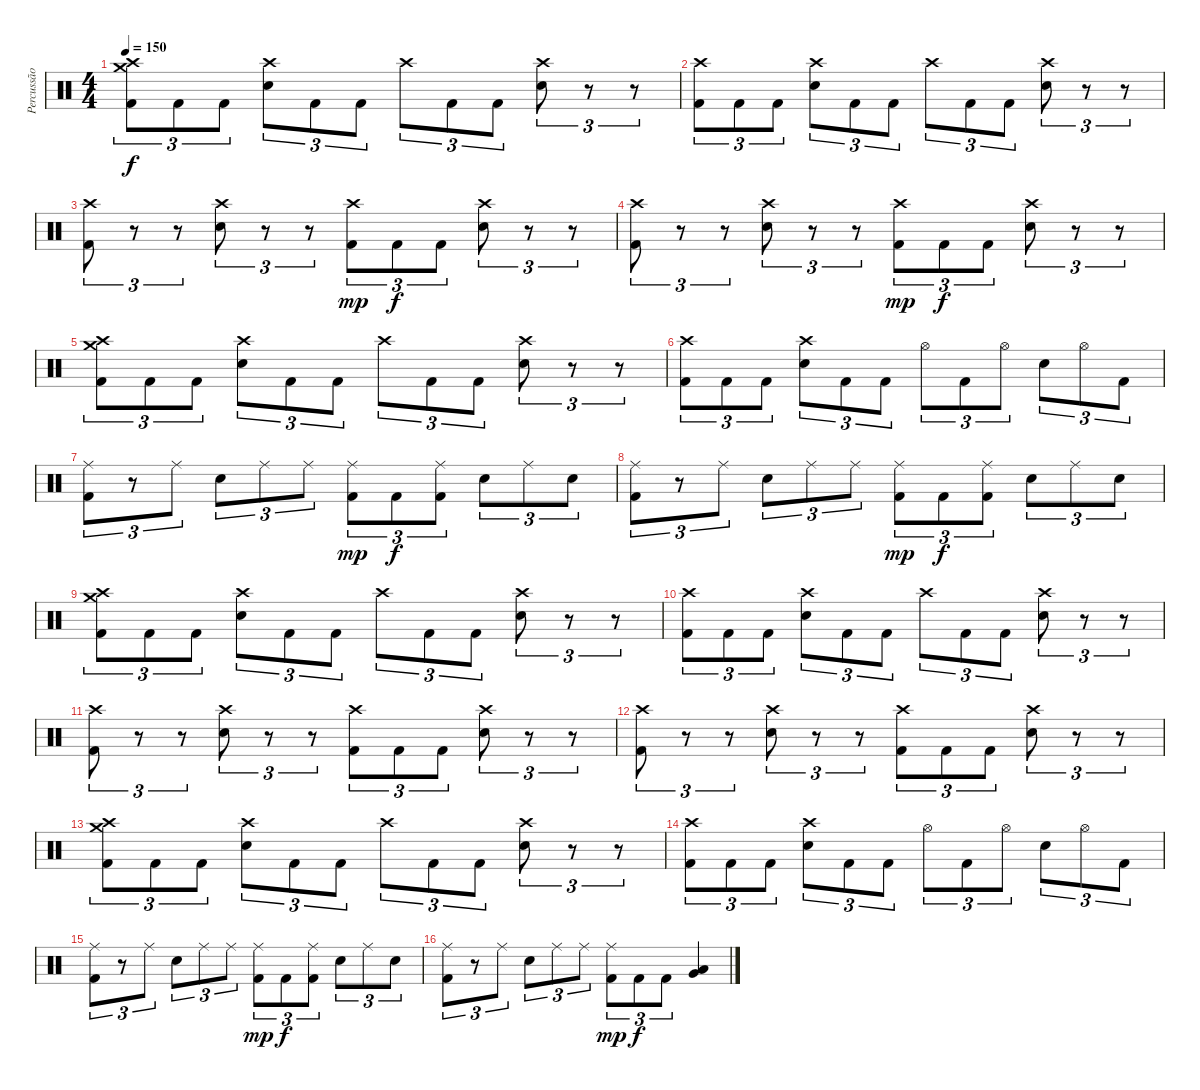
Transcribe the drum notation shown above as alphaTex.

\track ("Percussão" "Percussão") {instrument percussion}
\staff {score}
\articulation defaults
\ts (4 4)
\tempo 150
\clef neutral
\ks c
("Crash high (hit)" "Crash medium (hit)" "Kick (hit) 2").8{tu (3 2) dy f} "Kick (hit) 2".8{tu (3 2)} "Kick (hit) 2".8{tu (3 2)} ("Crash high (hit)" "Snare (hit) 2").8{tu (3 2)} "Kick (hit) 2".8{tu (3 2)} "Kick (hit) 2".8{tu (3 2)} "Crash high (hit)".8{tu (3 2)} "Kick (hit) 2".8{tu (3 2)} "Kick (hit) 2".8{tu (3 2)} ("Crash high (hit)" "Snare (hit) 2").8{tu (3 2)} r.8{tu (3 2)} r.8{tu (3 2)} |
("Crash high (hit)" "Kick (hit) 2").8{tu (3 2)} "Kick (hit) 2".8{tu (3 2)} "Kick (hit) 2".8{tu (3 2)} ("Crash high (hit)" "Snare (hit) 2").8{tu (3 2)} "Kick (hit) 2".8{tu (3 2)} "Kick (hit) 2".8{tu (3 2)} "Crash high (hit)".8{tu (3 2)} "Kick (hit) 2".8{tu (3 2)} "Kick (hit) 2".8{tu (3 2)} ("Crash high (hit)" "Snare (hit) 2").8{tu (3 2)} r.8{tu (3 2)} r.8{tu (3 2)} |
("Crash high (hit)" "Kick (hit) 2").8{tu (3 2)} r.8{tu (3 2)} r.8{tu (3 2)} ("Crash high (hit)" "Snare (hit) 2").8{tu (3 2)} r.8{tu (3 2)} r.8{tu (3 2)} ("Crash high (hit)" "Kick (hit) 2").8{tu (3 2) dy mp} "Kick (hit) 2".8{tu (3 2) dy f} "Kick (hit) 2".8{tu (3 2)} ("Crash high (hit)" "Snare (hit) 2").8{tu (3 2)} r.8{tu (3 2)} r.8{tu (3 2)} |
("Crash high (hit)" "Kick (hit) 2").8{tu (3 2)} r.8{tu (3 2)} r.8{tu (3 2)} ("Crash high (hit)" "Snare (hit) 2").8{tu (3 2)} r.8{tu (3 2)} r.8{tu (3 2)} ("Crash high (hit)" "Kick (hit) 2").8{tu (3 2) dy mp} "Kick (hit) 2".8{tu (3 2) dy f} "Kick (hit) 2".8{tu (3 2)} ("Crash high (hit)" "Snare (hit) 2").8{tu (3 2)} r.8{tu (3 2)} r.8{tu (3 2)} |
("Crash high (hit)" "Crash medium (hit)" "Kick (hit) 2").8{tu (3 2)} "Kick (hit) 2".8{tu (3 2)} "Kick (hit) 2".8{tu (3 2)} ("Crash high (hit)" "Snare (hit) 2").8{tu (3 2)} "Kick (hit) 2".8{tu (3 2)} "Kick (hit) 2".8{tu (3 2)} "Crash high (hit)".8{tu (3 2)} "Kick (hit) 2".8{tu (3 2)} "Kick (hit) 2".8{tu (3 2)} ("Crash high (hit)" "Snare (hit) 2").8{tu (3 2)} r.8{tu (3 2)} r.8{tu (3 2)} |
("Crash high (hit)" "Kick (hit) 2").8{tu (3 2)} "Kick (hit) 2".8{tu (3 2)} "Kick (hit) 2".8{tu (3 2)} ("Crash high (hit)" "Snare (hit) 2").8{tu (3 2)} "Kick (hit) 2".8{tu (3 2)} "Kick (hit) 2".8{tu (3 2)} "Hi-Hat (open)".8{tu (3 2)} "Kick (hit) 2".8{tu (3 2)} "Hi-Hat (open)".8{tu (3 2)} "Snare (hit) 2".8{tu (3 2)} "Hi-Hat (open)".8{tu (3 2)} "Kick (hit) 2".8{tu (3 2)} |
("Ride (middle)" "Kick (hit) 2").8{tu (3 2)} r.8{tu (3 2)} "Ride (middle)".8{tu (3 2)} "Snare (hit) 2".8{tu (3 2)} "Ride (middle)".8{tu (3 2)} "Ride (middle)".8{tu (3 2)} ("Ride (middle)" "Kick (hit) 2").8{tu (3 2) dy mp} "Kick (hit) 2".8{tu (3 2) dy f} ("Ride (middle)" "Kick (hit) 2").8{tu (3 2)} "Snare (hit) 2".8{tu (3 2)} "Ride (middle)".8{tu (3 2)} "Snare (hit)".8{tu (3 2)} |
("Ride (middle)" "Kick (hit) 2").8{tu (3 2)} r.8{tu (3 2)} "Ride (middle)".8{tu (3 2)} "Snare (hit) 2".8{tu (3 2)} "Ride (middle)".8{tu (3 2)} "Ride (middle)".8{tu (3 2)} ("Ride (middle)" "Kick (hit) 2").8{tu (3 2) dy mp} "Kick (hit) 2".8{tu (3 2) dy f} ("Ride (middle)" "Kick (hit) 2").8{tu (3 2)} "Snare (hit) 2".8{tu (3 2)} "Ride (middle)".8{tu (3 2)} "Snare (hit)".8{tu (3 2)} |
("Crash high (hit)" "Crash medium (hit)" "Kick (hit) 2").8{tu (3 2)} "Kick (hit) 2".8{tu (3 2)} "Kick (hit) 2".8{tu (3 2)} ("Crash high (hit)" "Snare (hit) 2").8{tu (3 2)} "Kick (hit) 2".8{tu (3 2)} "Kick (hit) 2".8{tu (3 2)} "Crash high (hit)".8{tu (3 2)} "Kick (hit) 2".8{tu (3 2)} "Kick (hit) 2".8{tu (3 2)} ("Crash high (hit)" "Snare (hit) 2").8{tu (3 2)} r.8{tu (3 2)} r.8{tu (3 2)} |
("Crash high (hit)" "Kick (hit) 2").8{tu (3 2)} "Kick (hit) 2".8{tu (3 2)} "Kick (hit) 2".8{tu (3 2)} ("Crash high (hit)" "Snare (hit) 2").8{tu (3 2)} "Kick (hit) 2".8{tu (3 2)} "Kick (hit) 2".8{tu (3 2)} "Crash high (hit)".8{tu (3 2)} "Kick (hit) 2".8{tu (3 2)} "Kick (hit) 2".8{tu (3 2)} ("Crash high (hit)" "Snare (hit) 2").8{tu (3 2)} r.8{tu (3 2)} r.8{tu (3 2)} |
("Crash high (hit)" "Kick (hit) 2").8{tu (3 2)} r.8{tu (3 2)} r.8{tu (3 2)} ("Crash high (hit)" "Snare (hit) 2").8{tu (3 2)} r.8{tu (3 2)} r.8{tu (3 2)} ("Crash high (hit)" "Kick (hit) 2").8{tu (3 2)} "Kick (hit) 2".8{tu (3 2)} "Kick (hit) 2".8{tu (3 2)} ("Crash high (hit)" "Snare (hit) 2").8{tu (3 2)} r.8{tu (3 2)} r.8{tu (3 2)} |
("Crash high (hit)" "Kick (hit) 2").8{tu (3 2)} r.8{tu (3 2)} r.8{tu (3 2)} ("Crash high (hit)" "Snare (hit) 2").8{tu (3 2)} r.8{tu (3 2)} r.8{tu (3 2)} ("Crash high (hit)" "Kick (hit) 2").8{tu (3 2)} "Kick (hit) 2".8{tu (3 2)} "Kick (hit) 2".8{tu (3 2)} ("Crash high (hit)" "Snare (hit) 2").8{tu (3 2)} r.8{tu (3 2)} r.8{tu (3 2)} |
("Crash high (hit)" "Crash medium (hit)" "Kick (hit) 2").8{tu (3 2)} "Kick (hit) 2".8{tu (3 2)} "Kick (hit) 2".8{tu (3 2)} ("Crash high (hit)" "Snare (hit) 2").8{tu (3 2)} "Kick (hit) 2".8{tu (3 2)} "Kick (hit) 2".8{tu (3 2)} "Crash high (hit)".8{tu (3 2)} "Kick (hit) 2".8{tu (3 2)} "Kick (hit) 2".8{tu (3 2)} ("Crash high (hit)" "Snare (hit) 2").8{tu (3 2)} r.8{tu (3 2)} r.8{tu (3 2)} |
("Crash high (hit)" "Kick (hit) 2").8{tu (3 2)} "Kick (hit) 2".8{tu (3 2)} "Kick (hit) 2".8{tu (3 2)} ("Crash high (hit)" "Snare (hit) 2").8{tu (3 2)} "Kick (hit) 2".8{tu (3 2)} "Kick (hit) 2".8{tu (3 2)} "Hi-Hat (open)".8{tu (3 2)} "Kick (hit) 2".8{tu (3 2)} "Hi-Hat (open)".8{tu (3 2)} "Snare (hit) 2".8{tu (3 2)} "Hi-Hat (open)".8{tu (3 2)} "Kick (hit) 2".8{tu (3 2)} |
("Ride (middle)" "Kick (hit) 2").8{tu (3 2)} r.8{tu (3 2)} "Ride (middle)".8{tu (3 2)} "Snare (hit) 2".8{tu (3 2)} "Ride (middle)".8{tu (3 2)} "Ride (middle)".8{tu (3 2)} ("Ride (middle)" "Kick (hit) 2").8{tu (3 2) dy mp} "Kick (hit) 2".8{tu (3 2) dy f} ("Ride (middle)" "Kick (hit) 2").8{tu (3 2)} "Snare (hit) 2".8{tu (3 2)} "Ride (middle)".8{tu (3 2)} "Snare (hit)".8{tu (3 2)} |
("Ride (middle)" "Kick (hit) 2").8{tu (3 2)} r.8{tu (3 2)} "Ride (middle)".8{tu (3 2)} "Snare (hit) 2".8{tu (3 2)} "Ride (middle)".8{tu (3 2)} "Ride (middle)".8{tu (3 2)} ("Ride (middle)" "Kick (hit) 2").8{tu (3 2) dy mp} "Kick (hit) 2".8{tu (3 2) dy f} "Kick (hit) 2".8{tu (3 2)} ("Low Floor Tom (hit)" "Very Low Tom (hit)").4
